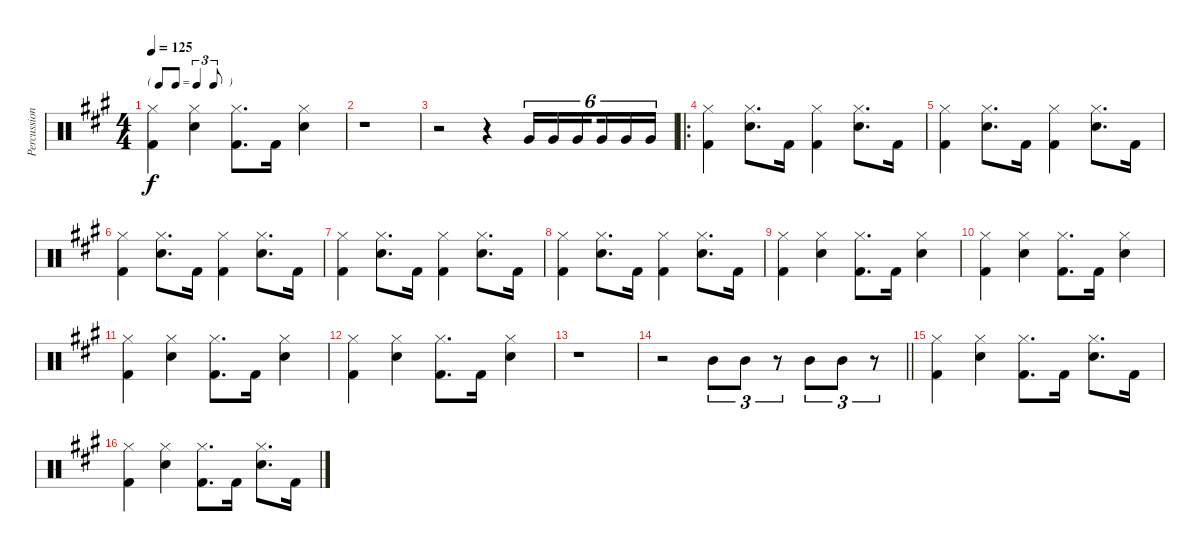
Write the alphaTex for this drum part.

\track ("Percussion" "Percussion") {instrument percussion}
\staff {score}
\articulation defaults
\ts (4 4)
\tf triplet8th
\tempo 125
\clef neutral
\ks a
("Hi-Hat (closed)" "Kick (hit) 2").4{dy f} ("Hi-Hat (closed)" "Snare (hit) 2").4 ("Hi-Hat (closed)" "Kick (hit) 2").8{d} "Kick (hit) 2".16 ("Hi-Hat (closed)" "Snare (hit) 2").4 |
r.1 |
r.2 r.4 "Very Low Tom (hit)".16{tu (6 4)} "Very Low Tom (hit)".16{tu (6 4)} "Very Low Tom (hit)".16{tu (6 4) beam splitsecondary} "Very Low Tom (hit)".16{tu (6 4)} "Very Low Tom (hit)".16{tu (6 4)} "Very Low Tom (hit)".16{tu (6 4)} |
\ro
("Hi-Hat (closed)" "Kick (hit) 2").4 ("Hi-Hat (closed)" "Snare (hit) 2").8{d} "Kick (hit) 2".16 ("Hi-Hat (closed)" "Kick (hit) 2").4 ("Hi-Hat (closed)" "Snare (hit) 2").8{d} "Kick (hit) 2".16 |
("Hi-Hat (closed)" "Kick (hit) 2").4 ("Hi-Hat (closed)" "Snare (hit) 2").8{d} "Kick (hit) 2".16 ("Hi-Hat (closed)" "Kick (hit) 2").4 ("Hi-Hat (closed)" "Snare (hit) 2").8{d} "Kick (hit) 2".16 |
("Hi-Hat (closed)" "Kick (hit) 2").4 ("Hi-Hat (closed)" "Snare (hit) 2").8{d} "Kick (hit) 2".16 ("Hi-Hat (closed)" "Kick (hit) 2").4 ("Hi-Hat (closed)" "Snare (hit) 2").8{d} "Kick (hit) 2".16 |
("Hi-Hat (closed)" "Kick (hit) 2").4 ("Hi-Hat (closed)" "Snare (hit) 2").8{d} "Kick (hit) 2".16 ("Hi-Hat (closed)" "Kick (hit) 2").4 ("Hi-Hat (closed)" "Snare (hit) 2").8{d} "Kick (hit) 2".16 |
("Hi-Hat (closed)" "Kick (hit) 2").4 ("Hi-Hat (closed)" "Snare (hit) 2").8{d} "Kick (hit) 2".16 ("Hi-Hat (closed)" "Kick (hit) 2").4 ("Hi-Hat (closed)" "Snare (hit) 2").8{d} "Kick (hit) 2".16 |
("Hi-Hat (closed)" "Kick (hit) 2").4 ("Hi-Hat (closed)" "Snare (hit) 2").4 ("Hi-Hat (closed)" "Kick (hit) 2").8{d} "Kick (hit) 2".16 ("Hi-Hat (closed)" "Snare (hit) 2").4 |
("Hi-Hat (closed)" "Kick (hit) 2").4 ("Hi-Hat (closed)" "Snare (hit) 2").4 ("Hi-Hat (closed)" "Kick (hit) 2").8{d} "Kick (hit) 2".16 ("Hi-Hat (closed)" "Snare (hit) 2").4 |
("Hi-Hat (closed)" "Kick (hit) 2").4 ("Hi-Hat (closed)" "Snare (hit) 2").4 ("Hi-Hat (closed)" "Kick (hit) 2").8{d} "Kick (hit) 2".16 ("Hi-Hat (closed)" "Snare (hit) 2").4 |
("Hi-Hat (closed)" "Kick (hit) 2").4 ("Hi-Hat (closed)" "Snare (hit) 2").4 ("Hi-Hat (closed)" "Kick (hit) 2").8{d} "Kick (hit) 2".16 ("Hi-Hat (closed)" "Snare (hit) 2").4 |
r.1 |
\barLineRight lightlight
r.2 "Mid Tom (hit)".8{tu (3 2)} "Mid Tom (hit)".8{tu (3 2)} r.8{tu (3 2)} "Mid Tom (hit)".8{tu (3 2)} "Mid Tom (hit)".8{tu (3 2)} r.8{tu (3 2)} |
("Hi-Hat (closed)" "Kick (hit) 2").4 ("Hi-Hat (closed)" "Snare (hit) 2").4 ("Hi-Hat (closed)" "Kick (hit) 2").8{d} "Kick (hit) 2".16 ("Hi-Hat (closed)" "Snare (hit) 2").8{d} "Kick (hit) 2".16 |
("Hi-Hat (closed)" "Kick (hit) 2").4 ("Hi-Hat (closed)" "Snare (hit) 2").4 ("Hi-Hat (closed)" "Kick (hit) 2").8{d} "Kick (hit) 2".16 ("Hi-Hat (closed)" "Snare (hit) 2").8{d} "Kick (hit) 2".16
